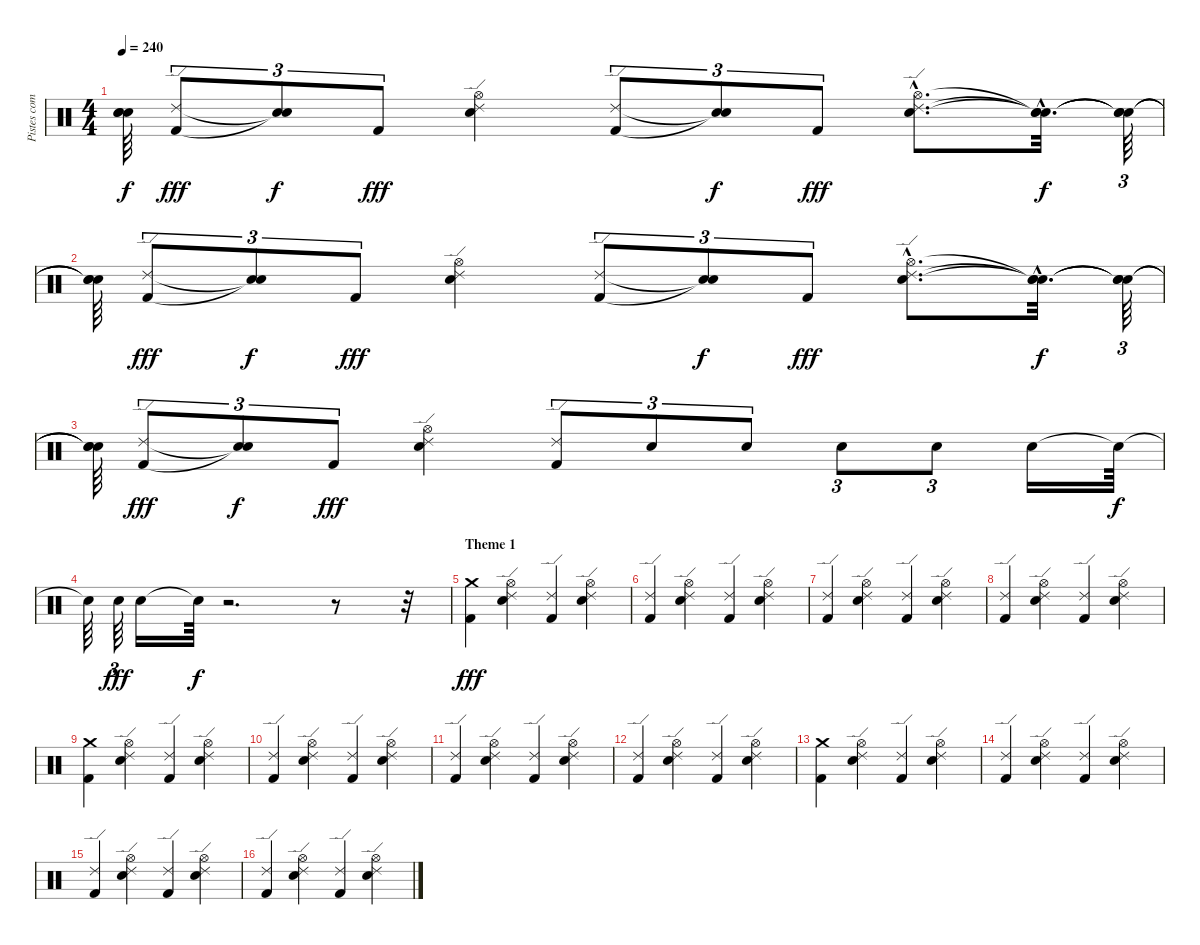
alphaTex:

\track ("Pistes combinées" "Pistes com") {instrument percussion}
\staff {score}
\articulation defaults
\ts (4 4)
\tempo 240
\clef neutral
\ks c
("Snare (hit)"{t} "Snare (hit)"{t} "Snare (hit)"{t}).64{dy f} ("Kick (hit) 2" "Ride (edge) 2").8{tu (3 2) dy fff} ("Snare (hit)"{t} "Snare (hit)"{t}).8{tu (3 2) dy f} "Kick (hit) 2".8{tu (3 2) dy fff} ("Electric Snare (hit)" "Ride (edge) 2" "Hi-Hat (open)").4 ("Kick (hit) 2" "Ride (edge) 2").8{tu (3 2)} ("Snare (hit)"{t} "Snare (hit)"{t}).8{tu (3 2) dy f} "Kick (hit) 2".8{tu (3 2) dy fff} ("Electric Snare (hit)"{hac} "Ride (edge) 2"{hac} "Hi-Hat (open)"{hac}).8{d} ("Snare (hit)"{hac t} "Snare (hit)"{hac t} "Snare (hit)"{hac t}).32{d dy f} ("Snare (hit)"{t} "Snare (hit)"{t} "Snare (hit)"{t}).64{tu (3 2)} |
("Snare (hit)"{t} "Snare (hit)"{t} "Snare (hit)"{t}).64 ("Kick (hit) 2" "Ride (edge) 2").8{tu (3 2) dy fff} ("Snare (hit)"{t} "Snare (hit)"{t}).8{tu (3 2) dy f} "Kick (hit) 2".8{tu (3 2) dy fff} ("Electric Snare (hit)" "Ride (edge) 2" "Hi-Hat (open)").4 ("Kick (hit) 2" "Ride (edge) 2").8{tu (3 2)} ("Snare (hit)"{t} "Snare (hit)"{t}).8{tu (3 2) dy f} "Kick (hit) 2".8{tu (3 2) dy fff} ("Electric Snare (hit)"{hac} "Ride (edge) 2"{hac} "Hi-Hat (open)"{hac}).8{d} ("Snare (hit)"{hac t} "Snare (hit)"{hac t} "Snare (hit)"{hac t}).32{d dy f} ("Snare (hit)"{t} "Snare (hit)"{t} "Snare (hit)"{t}).64{tu (3 2)} |
("Snare (hit)"{t} "Snare (hit)"{t} "Snare (hit)"{t}).64 ("Kick (hit) 2" "Ride (edge) 2").8{tu (3 2) dy fff} ("Snare (hit)"{t} "Snare (hit)"{t}).8{tu (3 2) dy f} "Kick (hit) 2".8{tu (3 2) dy fff} ("Electric Snare (hit)" "Ride (edge) 2" "Hi-Hat (open)").4 ("Kick (hit) 2" "Ride (edge) 2").8{tu (3 2)} "Electric Snare (hit)".8{tu (3 2)} "Electric Snare (hit)".8{tu (3 2)} "Electric Snare (hit)".8{tu (3 2)} "Electric Snare (hit)".8{tu (3 2)} "Electric Snare (hit)".16 "Snare (hit)"{t}.64{dy f} |
"Snare (hit)"{t}.64 "Electric Snare (hit)".64{tu (3 2) dy fff} "Electric Snare (hit)".16 "Snare (hit)"{t}.64{dy f} r.2{d} r.8 r.32 |
\section ("" "Theme 1")
("Kick (hit) 2" "Crash medium (hit)").4{dy fff} ("Electric Snare (hit)" "Ride (edge) 2" "Hi-Hat (open)").4 ("Kick (hit) 2" "Ride (edge) 2").4 ("Electric Snare (hit)" "Ride (edge) 2" "Hi-Hat (open)").4 |
("Kick (hit) 2" "Ride (edge) 2").4 ("Electric Snare (hit)" "Ride (edge) 2" "Hi-Hat (open)").4 ("Kick (hit) 2" "Ride (edge) 2").4 ("Electric Snare (hit)" "Ride (edge) 2" "Hi-Hat (open)").4 |
("Kick (hit) 2" "Ride (edge) 2").4 ("Electric Snare (hit)" "Ride (edge) 2" "Hi-Hat (open)").4 ("Kick (hit) 2" "Ride (edge) 2").4 ("Electric Snare (hit)" "Ride (edge) 2" "Hi-Hat (open)").4 |
("Kick (hit) 2" "Ride (edge) 2").4 ("Electric Snare (hit)" "Ride (edge) 2" "Hi-Hat (open)").4 ("Kick (hit) 2" "Ride (edge) 2").4 ("Electric Snare (hit)" "Ride (edge) 2" "Hi-Hat (open)").4 |
("Kick (hit) 2" "Crash medium (hit)").4 ("Electric Snare (hit)" "Ride (edge) 2" "Hi-Hat (open)").4 ("Kick (hit) 2" "Ride (edge) 2").4 ("Electric Snare (hit)" "Ride (edge) 2" "Hi-Hat (open)").4 |
("Kick (hit) 2" "Ride (edge) 2").4 ("Electric Snare (hit)" "Ride (edge) 2" "Hi-Hat (open)").4 ("Kick (hit) 2" "Ride (edge) 2").4 ("Electric Snare (hit)" "Ride (edge) 2" "Hi-Hat (open)").4 |
("Kick (hit) 2" "Ride (edge) 2").4 ("Electric Snare (hit)" "Ride (edge) 2" "Hi-Hat (open)").4 ("Kick (hit) 2" "Ride (edge) 2").4 ("Electric Snare (hit)" "Ride (edge) 2" "Hi-Hat (open)").4 |
("Kick (hit) 2" "Ride (edge) 2").4 ("Electric Snare (hit)" "Ride (edge) 2" "Hi-Hat (open)").4 ("Kick (hit) 2" "Ride (edge) 2").4 ("Electric Snare (hit)" "Ride (edge) 2" "Hi-Hat (open)").4 |
("Kick (hit) 2" "Crash medium (hit)").4 ("Electric Snare (hit)" "Ride (edge) 2" "Hi-Hat (open)").4 ("Kick (hit) 2" "Ride (edge) 2").4 ("Electric Snare (hit)" "Ride (edge) 2" "Hi-Hat (open)").4 |
("Kick (hit) 2" "Ride (edge) 2").4 ("Electric Snare (hit)" "Ride (edge) 2" "Hi-Hat (open)").4 ("Kick (hit) 2" "Ride (edge) 2").4 ("Electric Snare (hit)" "Ride (edge) 2" "Hi-Hat (open)").4 |
("Kick (hit) 2" "Ride (edge) 2").4 ("Electric Snare (hit)" "Ride (edge) 2" "Hi-Hat (open)").4 ("Kick (hit) 2" "Ride (edge) 2").4 ("Electric Snare (hit)" "Ride (edge) 2" "Hi-Hat (open)").4 |
("Kick (hit) 2" "Ride (edge) 2").4 ("Electric Snare (hit)" "Ride (edge) 2" "Hi-Hat (open)").4 ("Kick (hit) 2" "Ride (edge) 2").4 ("Electric Snare (hit)" "Ride (edge) 2" "Hi-Hat (open)").4
